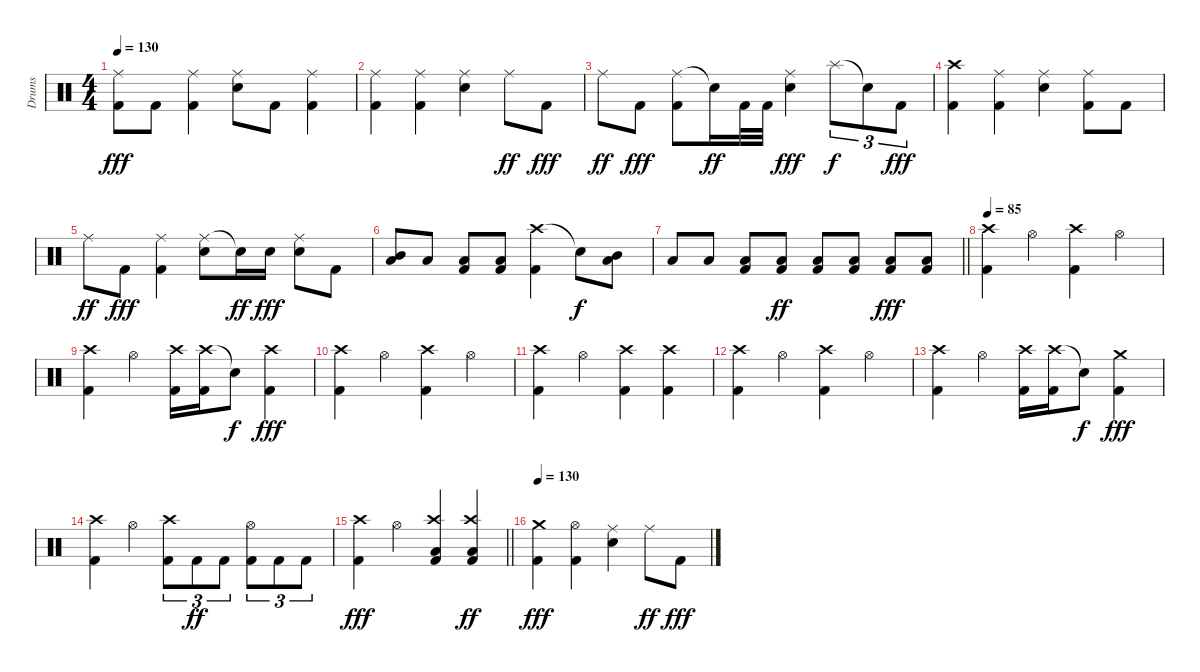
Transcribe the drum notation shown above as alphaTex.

\track ("Drums" "Drums") {instrument percussion}
\staff {score}
\articulation defaults
\ts (4 4)
\tempo 130
\clef neutral
\ks c
("Ride (middle)" "Kick (hit) 2").8{dy fff} "Kick (hit) 2".8 ("Ride (middle)" "Kick (hit) 2").4 ("Ride (middle)" "Snare (hit) 2").8 "Kick (hit) 2".8 ("Ride (middle)" "Kick (hit) 2").4 |
("Ride (middle)" "Kick (hit) 2").4 ("Ride (middle)" "Kick (hit) 2").4 ("Ride (middle)" "Snare (hit) 2").4 "Ride (middle)".8{dy ff} "Kick (hit) 2".8{dy fff} |
"Ride (middle)".8{dy ff} "Kick (hit) 2".8{dy fff} ("Ride (middle)" "Kick (hit) 2").8 "Snare (hit)"{t}.16{dy ff} "Kick (hit) 2".32 "Kick (hit) 2".32 ("Ride (middle)" "Snare (hit) 2").4{dy fff} "Splash (hit)".8{tu (3 2) dy f} "Snare (hit)"{t}.8{tu (3 2)} "Kick (hit) 2".8{tu (3 2) dy fff} |
("Crash high (hit)" "Kick (hit) 2").4 ("Ride (middle)" "Kick (hit) 2").4 ("Ride (middle)" "Snare (hit) 2").4 ("Ride (middle)" "Kick (hit) 2").8 "Kick (hit) 2".8 |
"Ride (middle)".8{dy ff} "Kick (hit) 2".8{dy fff} ("Ride (middle)" "Kick (hit) 2").4 ("Ride (middle)" "Snare (hit) 2").8 "Snare (hit)"{t}.16{dy ff} "Snare (hit) 2".16{dy fff} ("Ride (middle)" "Snare (hit) 2").8 "Kick (hit) 2".8 |
("Low Tom (hit)" "Mid Tom (hit)").8 "Low Tom (hit)".8 ("Low Tom (hit)" "Kick (hit) 2").8 ("Low Tom (hit)" "Kick (hit) 2").8 ("Crash high (hit)" "Kick (hit) 2").4 "Snare (hit)"{t}.8{dy f} ("Low Tom (hit)" "Mid Tom (hit)").8 |
\barLineRight lightlight "Low Tom (hit)".8 "Low Tom (hit)".8
("Low Tom (hit)" "Kick (hit) 2").8 ("Low Tom (hit)" "Kick (hit) 2").8{dy ff} ("Low Tom (hit)" "Kick (hit) 2").8 ("Low Tom (hit)" "Kick (hit) 2").8 ("Low Tom (hit)" "Kick (hit) 2").8{dy fff} ("Low Tom (hit)" "Kick (hit) 2").8 |
\section ("" "")
\tempo 85
("Crash high (hit)" "Kick (hit) 2").4 "Hi-Hat (open)".4 ("Crash high (hit)" "Kick (hit) 2").4 "Hi-Hat (open)".4 |
("Crash high (hit)" "Kick (hit) 2").4 "Hi-Hat (open)".4 ("Crash high (hit)" "Kick (hit) 2").16 ("Crash high (hit)" "Kick (hit) 2").16 "Snare (hit)"{t}.8{dy f} ("Crash high (hit)" "Kick (hit) 2").4{dy fff} |
("Crash high (hit)" "Kick (hit) 2").4 "Hi-Hat (open)".4 ("Crash high (hit)" "Kick (hit) 2").4 "Hi-Hat (open)".4 |
("Crash high (hit)" "Kick (hit) 2").4 "Hi-Hat (open)".4 ("Crash high (hit)" "Kick (hit) 2").4 ("Crash high (hit)" "Kick (hit) 2").4 |
("Crash high (hit)" "Kick (hit) 2").4 "Hi-Hat (open)".4 ("Crash high (hit)" "Kick (hit) 2").4 "Hi-Hat (open)".4 |
("Crash high (hit)" "Kick (hit) 2").4 "Hi-Hat (open)".4 ("Crash high (hit)" "Kick (hit) 2").16 ("Crash high (hit)" "Kick (hit) 2").16 "Snare (hit)"{t}.8{dy f} ("Crash medium (hit)" "Kick (hit) 2").4{dy fff} |
("Crash high (hit)" "Kick (hit) 2").4 "Hi-Hat (open)".4 ("Crash high (hit)" "Kick (hit) 2").8{tu (3 2)} "Kick (hit) 2".8{tu (3 2) dy ff} "Kick (hit) 2".8{tu (3 2)} ("Hi-Hat (open)" "Kick (hit) 2").8{tu (3 2)} "Kick (hit) 2".8{tu (3 2)} "Kick (hit) 2".8{tu (3 2)} |
\barLineRight lightlight
("Crash high (hit)" "Kick (hit) 2").4{dy fff} "Hi-Hat (open)".4 ("Crash high (hit)" "Low Tom (hit)" "Kick (hit) 2").4 ("Crash high (hit)" "Low Tom (hit)" "Kick (hit) 2").4{dy ff} |
\section ("" "")
\tempo 130
("Crash medium (hit)" "Kick (hit) 2").4{dy fff} ("Hi-Hat (open)" "Kick (hit) 2").4 ("Ride (middle)" "Snare (hit) 2").4 "Ride (middle)".8{dy ff} "Kick (hit) 2".8{dy fff}
